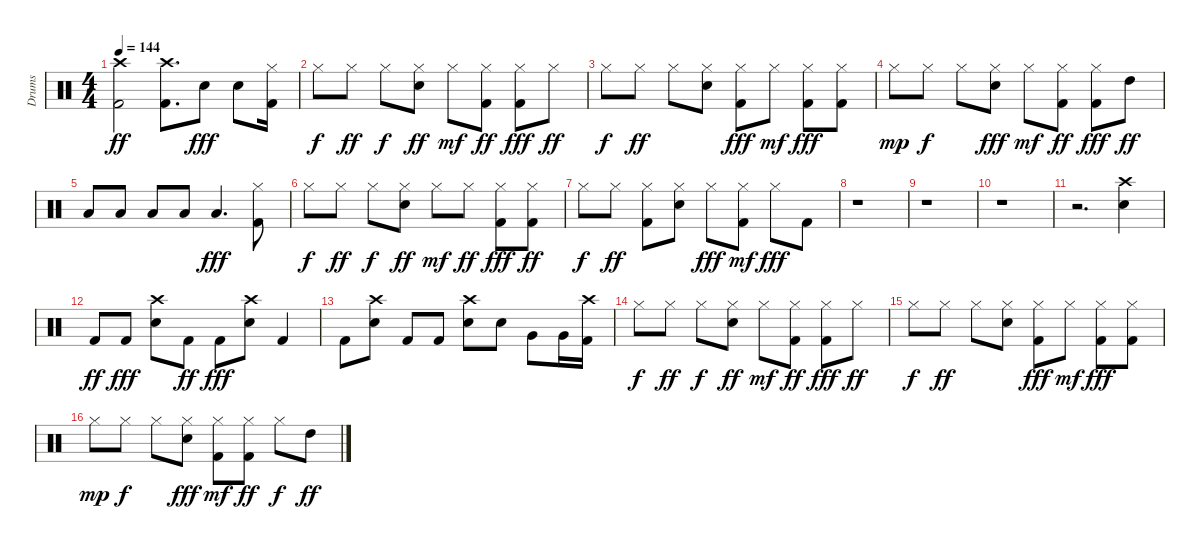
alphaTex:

\track ("Drums" "Drums") {instrument percussion}
\staff {score}
\articulation defaults
\ts (4 4)
\tempo 144
\clef neutral
\ks c
("Kick (hit) 2" "Crash high (hit)").2{dy ff} ("Kick (hit) 2" "Crash high (hit)").8{d} "Snare (hit) 2".8{dy fff} "Snare (hit) 2".8 ("Kick (hit) 2" "Hi-Hat (closed)").16 |
"Hi-Hat (closed)".8{dy f} "Hi-Hat (closed)".8{dy ff} "Hi-Hat (closed)".8{dy f} ("Snare (hit) 2" "Hi-Hat (closed)").8{dy ff} "Hi-Hat (closed)".8{dy mf} ("Kick (hit) 2" "Hi-Hat (closed)").8{dy ff} ("Kick (hit) 2" "Hi-Hat (closed)").8{dy fff} "Hi-Hat (closed)".8{dy ff} |
"Hi-Hat (closed)".8{dy f} "Hi-Hat (closed)".8{dy ff} "Hi-Hat (closed)".8 ("Snare (hit) 2" "Hi-Hat (closed)").8 ("Kick (hit) 2" "Hi-Hat (closed)").8{dy fff} "Hi-Hat (closed)".8{dy mf} ("Kick (hit) 2" "Hi-Hat (closed)").8{dy fff} ("Kick (hit) 2" "Hi-Hat (closed)").8 |
"Hi-Hat (closed)".8{dy mp} "Hi-Hat (closed)".8{dy f} "Hi-Hat (closed)".8 ("Snare (hit) 2" "Hi-Hat (closed)").8{dy fff} "Hi-Hat (closed)".8{dy mf} ("Kick (hit) 2" "Hi-Hat (closed)").8{dy ff} ("Kick (hit) 2" "Hi-Hat (closed)").8{dy fff} "High Tom (hit)".8{dy ff} |
"Low Tom (hit)".8 "Low Tom (hit)".8 "Low Floor Tom (hit)".8 "Low Floor Tom (hit)".8 "Low Floor Tom (hit)".4{d dy fff} ("Kick (hit) 2" "Hi-Hat (closed)").8 |
"Hi-Hat (closed)".8{dy f} "Hi-Hat (closed)".8{dy ff} "Hi-Hat (closed)".8{dy f} ("Snare (hit) 2" "Hi-Hat (closed)").8{dy ff} "Hi-Hat (closed)".8{dy mf} "Hi-Hat (closed)".8{dy ff} ("Kick (hit) 2" "Hi-Hat (closed)").8{dy fff} ("Kick (hit) 2" "Hi-Hat (closed)").8{dy ff} |
"Hi-Hat (closed)".8{dy f} "Hi-Hat (closed)".8{dy ff} ("Kick (hit) 2" "Hi-Hat (closed)").8 ("Snare (hit) 2" "Hi-Hat (closed)").8 "Hi-Hat (closed)".8{dy fff} ("Kick (hit) 2" "Hi-Hat (closed)").8{dy mf} "Hi-Hat (closed)".8{dy fff} "Kick (hit) 2".8 |
r.1 |
r.1 |
r.1 |
r.2{d} ("Crash high (hit)" "Snare (hit) 2").4 |
"Kick (hit) 2".8{dy ff} "Kick (hit) 2".8{dy fff} ("Crash high (hit)" "Snare (hit) 2").8 "Kick (hit) 2".8{dy ff} "Kick (hit) 2".8{dy fff} ("Crash high (hit)" "Snare (hit) 2").8 "Kick (hit) 2".4 |
"Kick (hit) 2".8 ("Crash high (hit)" "Snare (hit) 2").8 "Kick (hit) 2".8 "Kick (hit) 2".8 ("Snare (hit) 2" "Crash high (hit)").8 "Snare (hit) 2".8 "Very Low Tom (hit)".8 "Very Low Tom (hit)".16 ("Crash high (hit)" "Kick (hit) 2").16 |
"Hi-Hat (closed)".8{dy f} "Hi-Hat (closed)".8{dy ff} "Hi-Hat (closed)".8{dy f} ("Snare (hit) 2" "Hi-Hat (closed)").8{dy ff} "Hi-Hat (closed)".8{dy mf} ("Kick (hit) 2" "Hi-Hat (closed)").8{dy ff} ("Kick (hit) 2" "Hi-Hat (closed)").8{dy fff} "Hi-Hat (closed)".8{dy ff} |
"Hi-Hat (closed)".8{dy f} "Hi-Hat (closed)".8{dy ff} "Hi-Hat (closed)".8 ("Snare (hit) 2" "Hi-Hat (closed)").8 ("Kick (hit) 2" "Hi-Hat (closed)").8{dy fff} "Hi-Hat (closed)".8{dy mf} ("Kick (hit) 2" "Hi-Hat (closed)").8{dy fff} ("Kick (hit) 2" "Hi-Hat (closed)").8 |
"Hi-Hat (closed)".8{dy mp} "Hi-Hat (closed)".8{dy f} "Hi-Hat (closed)".8 ("Snare (hit) 2" "Hi-Hat (closed)").8{dy fff} ("Kick (hit) 2" "Hi-Hat (closed)").8{dy mf} ("Kick (hit) 2" "Hi-Hat (closed)").8{dy ff} "Hi-Hat (closed)".8{dy f} "High Tom (hit)".8{dy ff}
